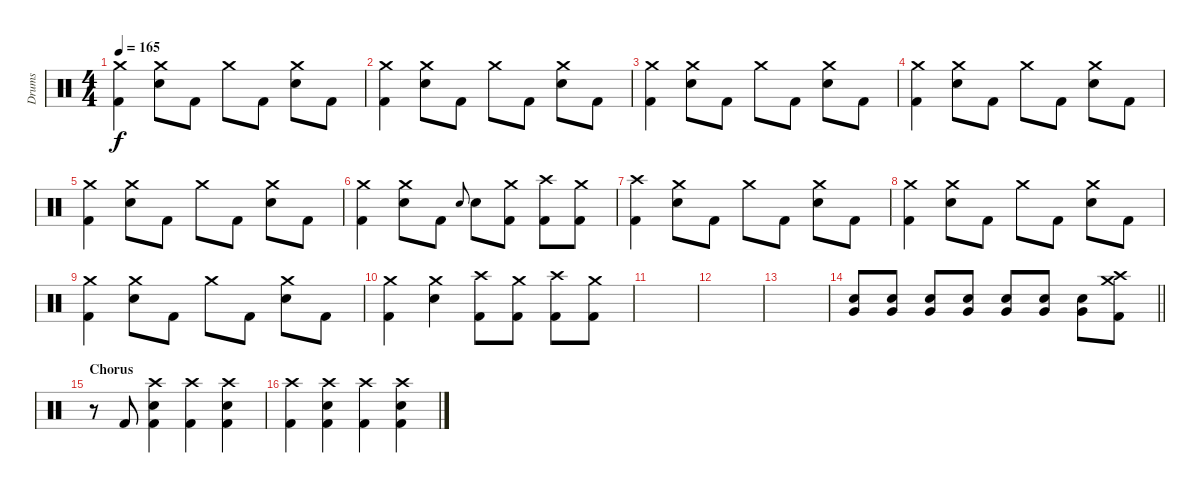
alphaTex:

\track ("Drums" "Drums") {instrument percussion}
\staff {score}
\articulation defaults
\ts (4 4)
\tempo 165
\clef neutral
\ks c
("Crash medium (hit)" "Kick (hit) 2").4{dy f} ("Crash medium (hit)" "Electric Snare (hit)").8 "Kick (hit) 2".8 "Crash medium (hit)".8 "Kick (hit) 2".8 ("Crash medium (hit)" "Electric Snare (hit)").8 "Kick (hit) 2".8 |
("Crash medium (hit)" "Kick (hit) 2").4 ("Crash medium (hit)" "Electric Snare (hit)").8 "Kick (hit) 2".8 "Crash medium (hit)".8 "Kick (hit) 2".8 ("Crash medium (hit)" "Electric Snare (hit)").8 "Kick (hit) 2".8 |
("Crash medium (hit)" "Kick (hit) 2").4 ("Crash medium (hit)" "Electric Snare (hit)").8 "Kick (hit) 2".8 "Crash medium (hit)".8 "Kick (hit) 2".8 ("Crash medium (hit)" "Electric Snare (hit)").8 "Kick (hit) 2".8 |
("Crash medium (hit)" "Kick (hit) 2").4 ("Crash medium (hit)" "Electric Snare (hit)").8 "Kick (hit) 2".8 "Crash medium (hit)".8 "Kick (hit) 2".8 ("Crash medium (hit)" "Electric Snare (hit)").8 "Kick (hit) 2".8 |
("Crash medium (hit)" "Kick (hit) 2").4 ("Crash medium (hit)" "Electric Snare (hit)").8 "Kick (hit) 2".8 "Crash medium (hit)".8 "Kick (hit) 2".8 ("Crash medium (hit)" "Electric Snare (hit)").8 "Kick (hit) 2".8 |
("Crash medium (hit)" "Kick (hit) 2").4 ("Crash medium (hit)" "Electric Snare (hit)").8 "Kick (hit) 2".8 "Electric Snare (hit)".8{gr onbeat} "Electric Snare (hit)".8 ("Crash medium (hit)" "Kick (hit) 2").8 ("Crash high (hit)" "Kick (hit) 2").8 ("Crash medium (hit)" "Kick (hit) 2").8 |
("Crash high (hit)" "Kick (hit) 2").4 ("Crash medium (hit)" "Electric Snare (hit)").8 "Kick (hit) 2".8 "Crash medium (hit)".8 "Kick (hit) 2".8 ("Crash medium (hit)" "Electric Snare (hit)").8 "Kick (hit) 2".8 |
("Crash medium (hit)" "Kick (hit) 2").4 ("Crash medium (hit)" "Electric Snare (hit)").8 "Kick (hit) 2".8 "Crash medium (hit)".8 "Kick (hit) 2".8 ("Crash medium (hit)" "Electric Snare (hit)").8 "Kick (hit) 2".8 |
("Crash medium (hit)" "Kick (hit) 2").4 ("Crash medium (hit)" "Electric Snare (hit)").8 "Kick (hit) 2".8 "Crash medium (hit)".8 "Kick (hit) 2".8 ("Crash medium (hit)" "Electric Snare (hit)").8 "Kick (hit) 2".8 |
("Crash medium (hit)" "Kick (hit) 2").4 ("Crash medium (hit)" "Electric Snare (hit)").4 ("Crash high (hit)" "Kick (hit) 2").8 ("Crash medium (hit)" "Kick (hit) 2").8 ("Crash high (hit)" "Kick (hit) 2").8 ("Crash medium (hit)" "Kick (hit) 2").8 |
|
|
|
\barLineRight lightlight
("Very Low Tom (hit)" "Electric Snare (hit)").8 ("Very Low Tom (hit)" "Electric Snare (hit)").8 ("Very Low Tom (hit)" "Electric Snare (hit)").8 ("Very Low Tom (hit)" "Electric Snare (hit)").8 ("Very Low Tom (hit)" "Electric Snare (hit)").8 ("Very Low Tom (hit)" "Electric Snare (hit)").8 ("Very Low Tom (hit)" "Electric Snare (hit)").8 ("Crash high (hit)" "Crash medium (hit)" "Kick (hit) 2").8 |
\section ("" "Chorus")
r.8 "Kick (hit) 2".8 ("Crash high (hit)" "Electric Snare (hit)" "Kick (hit) 2").4 ("Crash high (hit)" "Kick (hit) 2").4 ("Crash high (hit)" "Electric Snare (hit)" "Kick (hit) 2").4 |
("Crash high (hit)" "Kick (hit) 2").4 ("Crash high (hit)" "Electric Snare (hit)" "Kick (hit) 2").4 ("Crash high (hit)" "Kick (hit) 2").4 ("Crash high (hit)" "Electric Snare (hit)" "Kick (hit) 2").4
